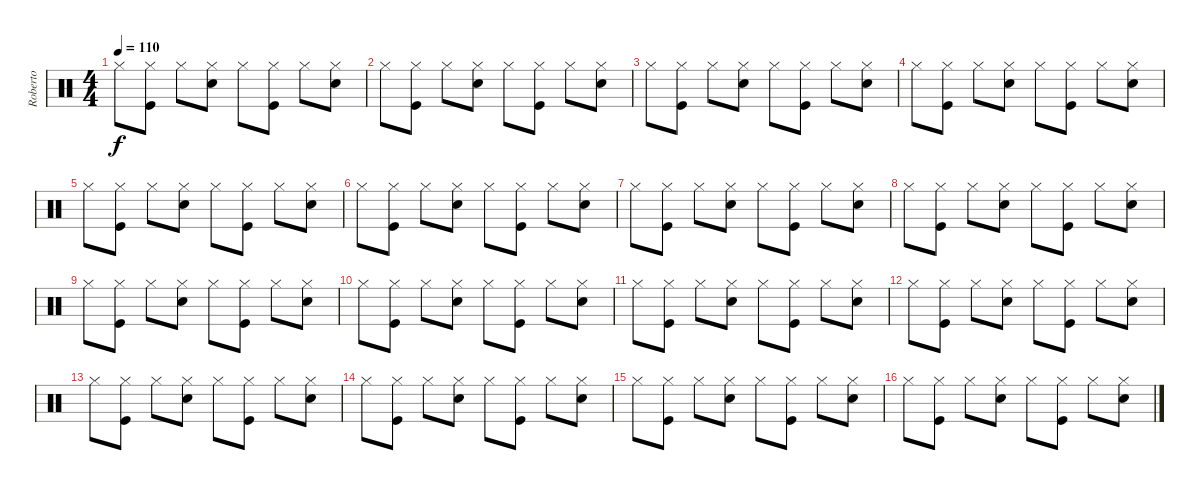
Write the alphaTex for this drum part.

\track ("Roberto" "Roberto") {instrument percussion}
\staff {score}
\articulation defaults
\ts (4 4)
\tempo 110
\clef neutral
\ks c "Hi-Hat (closed)".8{dy f volume 12}
("Hi-Hat (closed)" "Kick (hit)").8 "Hi-Hat (closed)".8 ("Hi-Hat (closed)" "Snare (hit) 2").8 "Hi-Hat (closed)".8 ("Hi-Hat (closed)" "Kick (hit)").8 "Hi-Hat (closed)".8 ("Hi-Hat (closed)" "Snare (hit) 2").8 |
"Hi-Hat (closed)".8{volume 11} ("Hi-Hat (closed)" "Kick (hit)").8 "Hi-Hat (closed)".8 ("Hi-Hat (closed)" "Snare (hit) 2").8 "Hi-Hat (closed)".8 ("Hi-Hat (closed)" "Kick (hit)").8 "Hi-Hat (closed)".8 ("Hi-Hat (closed)" "Snare (hit) 2").8 |
"Hi-Hat (closed)".8{volume 11} ("Hi-Hat (closed)" "Kick (hit)").8 "Hi-Hat (closed)".8 ("Hi-Hat (closed)" "Snare (hit) 2").8 "Hi-Hat (closed)".8 ("Hi-Hat (closed)" "Kick (hit)").8 "Hi-Hat (closed)".8 ("Hi-Hat (closed)" "Snare (hit) 2").8 |
"Hi-Hat (closed)".8{volume 11} ("Hi-Hat (closed)" "Kick (hit)").8 "Hi-Hat (closed)".8 ("Hi-Hat (closed)" "Snare (hit) 2").8 "Hi-Hat (closed)".8 ("Hi-Hat (closed)" "Kick (hit)").8 "Hi-Hat (closed)".8 ("Hi-Hat (closed)" "Snare (hit) 2").8 |
"Hi-Hat (closed)".8{volume 11} ("Hi-Hat (closed)" "Kick (hit)").8 "Hi-Hat (closed)".8 ("Hi-Hat (closed)" "Snare (hit) 2").8 "Hi-Hat (closed)".8 ("Hi-Hat (closed)" "Kick (hit)").8 "Hi-Hat (closed)".8 ("Hi-Hat (closed)" "Snare (hit) 2").8 |
"Hi-Hat (closed)".8{volume 11} ("Hi-Hat (closed)" "Kick (hit)").8 "Hi-Hat (closed)".8 ("Hi-Hat (closed)" "Snare (hit) 2").8 "Hi-Hat (closed)".8 ("Hi-Hat (closed)" "Kick (hit)").8 "Hi-Hat (closed)".8 ("Hi-Hat (closed)" "Snare (hit) 2").8 |
"Hi-Hat (closed)".8{volume 11} ("Hi-Hat (closed)" "Kick (hit)").8 "Hi-Hat (closed)".8 ("Hi-Hat (closed)" "Snare (hit) 2").8 "Hi-Hat (closed)".8 ("Hi-Hat (closed)" "Kick (hit)").8 "Hi-Hat (closed)".8 ("Hi-Hat (closed)" "Snare (hit) 2").8 |
"Hi-Hat (closed)".8{volume 11} ("Hi-Hat (closed)" "Kick (hit)").8 "Hi-Hat (closed)".8 ("Hi-Hat (closed)" "Snare (hit) 2").8 "Hi-Hat (closed)".8 ("Hi-Hat (closed)" "Kick (hit)").8 "Hi-Hat (closed)".8 ("Hi-Hat (closed)" "Snare (hit) 2").8 |
"Hi-Hat (closed)".8{volume 11} ("Hi-Hat (closed)" "Kick (hit)").8 "Hi-Hat (closed)".8 ("Hi-Hat (closed)" "Snare (hit) 2").8 "Hi-Hat (closed)".8 ("Hi-Hat (closed)" "Kick (hit)").8 "Hi-Hat (closed)".8 ("Hi-Hat (closed)" "Snare (hit) 2").8 |
"Hi-Hat (closed)".8{volume 11} ("Hi-Hat (closed)" "Kick (hit)").8 "Hi-Hat (closed)".8 ("Hi-Hat (closed)" "Snare (hit) 2").8 "Hi-Hat (closed)".8 ("Hi-Hat (closed)" "Kick (hit)").8 "Hi-Hat (closed)".8 ("Hi-Hat (closed)" "Snare (hit) 2").8 |
"Hi-Hat (closed)".8{volume 11} ("Hi-Hat (closed)" "Kick (hit)").8 "Hi-Hat (closed)".8 ("Hi-Hat (closed)" "Snare (hit) 2").8 "Hi-Hat (closed)".8 ("Hi-Hat (closed)" "Kick (hit)").8 "Hi-Hat (closed)".8 ("Hi-Hat (closed)" "Snare (hit) 2").8 |
"Hi-Hat (closed)".8{volume 11} ("Hi-Hat (closed)" "Kick (hit)").8 "Hi-Hat (closed)".8 ("Hi-Hat (closed)" "Snare (hit) 2").8 "Hi-Hat (closed)".8 ("Hi-Hat (closed)" "Kick (hit)").8 "Hi-Hat (closed)".8 ("Hi-Hat (closed)" "Snare (hit) 2").8 |
"Hi-Hat (closed)".8{volume 11} ("Hi-Hat (closed)" "Kick (hit)").8 "Hi-Hat (closed)".8 ("Hi-Hat (closed)" "Snare (hit) 2").8 "Hi-Hat (closed)".8 ("Hi-Hat (closed)" "Kick (hit)").8 "Hi-Hat (closed)".8 ("Hi-Hat (closed)" "Snare (hit) 2").8 |
"Hi-Hat (closed)".8{volume 11} ("Hi-Hat (closed)" "Kick (hit)").8 "Hi-Hat (closed)".8 ("Hi-Hat (closed)" "Snare (hit) 2").8 "Hi-Hat (closed)".8 ("Hi-Hat (closed)" "Kick (hit)").8 "Hi-Hat (closed)".8 ("Hi-Hat (closed)" "Snare (hit) 2").8 |
"Hi-Hat (closed)".8{volume 11} ("Hi-Hat (closed)" "Kick (hit)").8 "Hi-Hat (closed)".8 ("Hi-Hat (closed)" "Snare (hit) 2").8 "Hi-Hat (closed)".8 ("Hi-Hat (closed)" "Kick (hit)").8 "Hi-Hat (closed)".8 ("Hi-Hat (closed)" "Snare (hit) 2").8 |
"Hi-Hat (closed)".8{volume 11} ("Hi-Hat (closed)" "Kick (hit)").8 "Hi-Hat (closed)".8 ("Hi-Hat (closed)" "Snare (hit) 2").8 "Hi-Hat (closed)".8 ("Hi-Hat (closed)" "Kick (hit)").8 "Hi-Hat (closed)".8 ("Hi-Hat (closed)" "Snare (hit) 2").8
